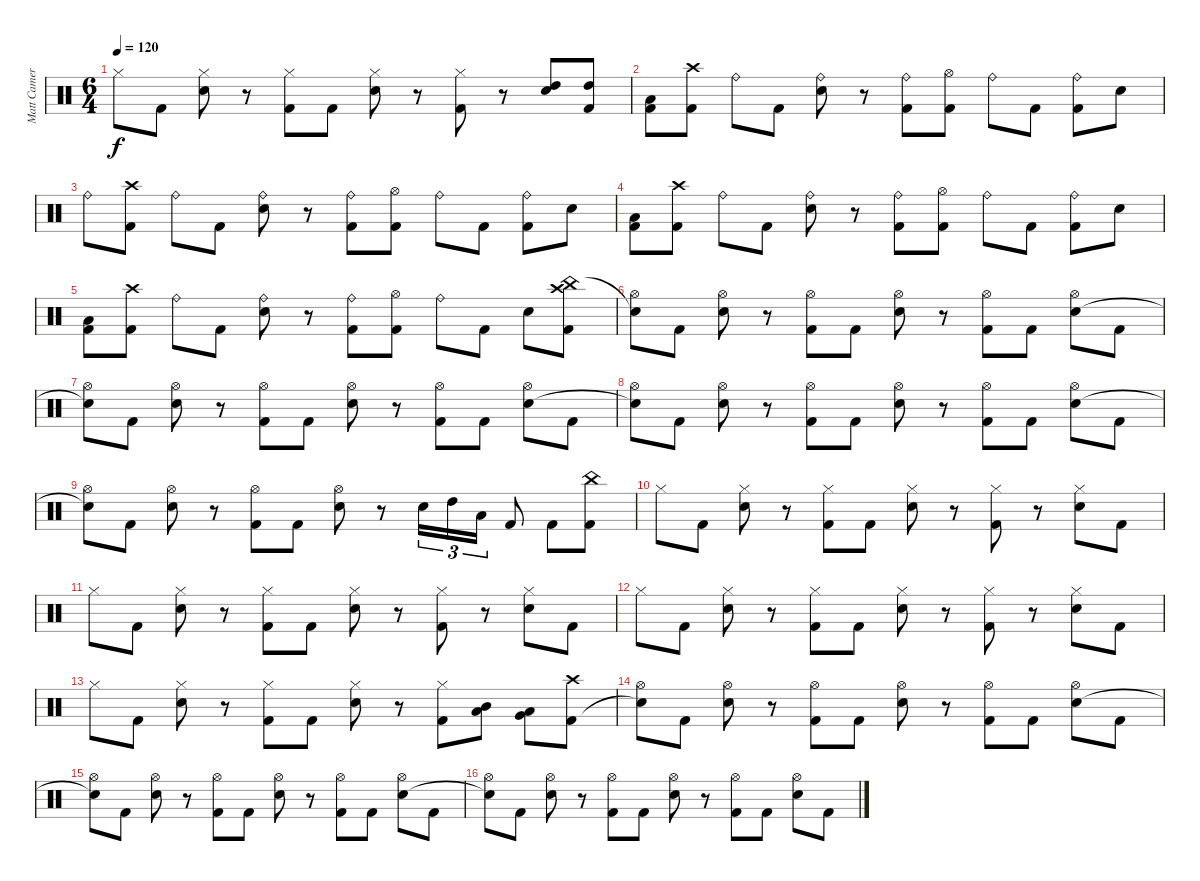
\track ("Matt Cameron (Drums)" "Matt Camer") {instrument percussion}
\staff {score}
\articulation defaults
\ts (6 4)
\tempo 120
\clef neutral
\ks c "Hi-Hat (closed)".8{dy f} "Kick (hit) 2".8
("Hi-Hat (closed)" "Electric Snare (hit)").8 r.8 ("Hi-Hat (closed)" "Kick (hit) 2").8 "Kick (hit) 2".8 ("Hi-Hat (closed)" "Electric Snare (hit)").8 r.8 ("Hi-Hat (closed)" "Kick (hit) 2").8 r.8 ("High Tom (hit)" "Electric Snare (hit)").8 ("High Tom (hit)" "Kick (hit) 2").8 |
("Low Tom (hit)" "Kick (hit) 2").8 ("Crash high (hit)" "Kick (hit) 2").8 "Ride (bell)".8 "Kick (hit) 2".8 ("Ride (bell)" "Electric Snare (hit)").8 r.8 ("Ride (bell)" "Kick (hit) 2").8 ("Hi-Hat (open)" "Kick (hit) 2").8 "Ride (bell)".8 "Kick (hit) 2".8 ("Ride (bell)" "Kick (hit) 2").8 "Electric Snare (hit)".8 |
"Ride (bell)".8 ("Crash high (hit)" "Kick (hit) 2").8 "Ride (bell)".8 "Kick (hit) 2".8 ("Ride (bell)" "Electric Snare (hit)").8 r.8 ("Ride (bell)" "Kick (hit) 2").8 ("Hi-Hat (open)" "Kick (hit) 2").8 "Ride (bell)".8 "Kick (hit) 2".8 ("Ride (bell)" "Kick (hit) 2").8 "Electric Snare (hit)".8 |
("Low Tom (hit)" "Kick (hit) 2").8 ("Crash high (hit)" "Kick (hit) 2").8 "Ride (bell)".8 "Kick (hit) 2".8 ("Ride (bell)" "Electric Snare (hit)").8 r.8 ("Ride (bell)" "Kick (hit) 2").8 ("Hi-Hat (open)" "Kick (hit) 2").8 "Ride (bell)".8 "Kick (hit) 2".8 ("Ride (bell)" "Kick (hit) 2").8 "Electric Snare (hit)".8 |
("Low Tom (hit)" "Kick (hit) 2").8 ("Crash high (hit)" "Kick (hit) 2").8 "Ride (bell)".8 "Kick (hit) 2".8 ("Ride (bell)" "Electric Snare (hit)").8 r.8 ("Ride (bell)" "Kick (hit) 2").8 ("Hi-Hat (open)" "Kick (hit) 2").8 "Ride (bell)".8 "Kick (hit) 2".8 "Electric Snare (hit)".8 ("Crash high (hit)" "China (hit)" "Kick (hit) 2").8 |
("Hi-Hat (open)" "Snare (hit)"{t}).8 "Kick (hit) 2".8 ("Hi-Hat (open)" "Electric Snare (hit)").8 r.8 ("Hi-Hat (open)" "Kick (hit) 2").8 "Kick (hit) 2".8 ("Hi-Hat (open)" "Electric Snare (hit)").8 r.8 ("Hi-Hat (open)" "Kick (hit) 2").8 "Kick (hit) 2".8 ("Hi-Hat (open)" "Electric Snare (hit)").8 "Kick (hit) 2".8 |
("Hi-Hat (open)" "Snare (hit)"{t}).8 "Kick (hit) 2".8 ("Hi-Hat (open)" "Electric Snare (hit)").8 r.8 ("Hi-Hat (open)" "Kick (hit) 2").8 "Kick (hit) 2".8 ("Hi-Hat (open)" "Electric Snare (hit)").8 r.8 ("Hi-Hat (open)" "Kick (hit) 2").8 "Kick (hit) 2".8 ("Hi-Hat (open)" "Electric Snare (hit)").8 "Kick (hit) 2".8 |
("Hi-Hat (open)" "Snare (hit)"{t}).8 "Kick (hit) 2".8 ("Hi-Hat (open)" "Electric Snare (hit)").8 r.8 ("Hi-Hat (open)" "Kick (hit) 2").8 "Kick (hit) 2".8 ("Hi-Hat (open)" "Electric Snare (hit)").8 r.8 ("Hi-Hat (open)" "Kick (hit) 2").8 "Kick (hit) 2".8 ("Hi-Hat (open)" "Electric Snare (hit)").8 "Kick (hit) 2".8 |
("Hi-Hat (open)" "Snare (hit)"{t}).8 "Kick (hit) 2".8 ("Hi-Hat (open)" "Electric Snare (hit)").8 r.8 ("Hi-Hat (open)" "Kick (hit) 2").8 "Kick (hit) 2".8 ("Hi-Hat (open)" "Electric Snare (hit)").8 r.8 "Electric Snare (hit)".16{tu (3 2)} "High Tom (hit)".16{tu (3 2)} "Low Tom (hit)".16{tu (3 2)} "Kick (hit) 2".8 "Kick (hit) 2".8 ("China (hit)" "Kick (hit) 2").8 |
"Hi-Hat (closed)".8 "Kick (hit) 2".8 ("Hi-Hat (closed)" "Electric Snare (hit)").8 r.8 ("Hi-Hat (closed)" "Kick (hit) 2").8 "Kick (hit) 2".8 ("Hi-Hat (closed)" "Electric Snare (hit)").8 r.8 ("Hi-Hat (closed)" "Kick (hit) 2").8 r.8 ("Hi-Hat (closed)" "Electric Snare (hit)").8 "Kick (hit) 2".8 |
"Hi-Hat (closed)".8 "Kick (hit) 2".8 ("Hi-Hat (closed)" "Electric Snare (hit)").8 r.8 ("Hi-Hat (closed)" "Kick (hit) 2").8 "Kick (hit) 2".8 ("Hi-Hat (closed)" "Electric Snare (hit)").8 r.8 ("Hi-Hat (closed)" "Kick (hit) 2").8 r.8 ("Hi-Hat (closed)" "Electric Snare (hit)").8 "Kick (hit) 2".8 |
"Hi-Hat (closed)".8 "Kick (hit) 2".8 ("Hi-Hat (closed)" "Electric Snare (hit)").8 r.8 ("Hi-Hat (closed)" "Kick (hit) 2").8 "Kick (hit) 2".8 ("Hi-Hat (closed)" "Electric Snare (hit)").8 r.8 ("Hi-Hat (closed)" "Kick (hit) 2").8 r.8 ("Hi-Hat (closed)" "Electric Snare (hit)").8 "Kick (hit) 2".8 |
"Hi-Hat (closed)".8 "Kick (hit) 2".8 ("Hi-Hat (closed)" "Electric Snare (hit)").8 r.8 ("Hi-Hat (closed)" "Kick (hit) 2").8 "Kick (hit) 2".8 ("Hi-Hat (closed)" "Electric Snare (hit)").8 r.8 ("Hi-Hat (closed)" "Kick (hit) 2").8 ("Low Tom (hit)" "Mid Tom (hit)").8 ("Very Low Tom (hit)" "Low Floor Tom (hit)").8 ("Crash high (hit)" "Kick (hit) 2").8 |
("Hi-Hat (open)" "Snare (hit)"{t}).8 "Kick (hit) 2".8 ("Hi-Hat (open)" "Electric Snare (hit)").8 r.8 ("Hi-Hat (open)" "Kick (hit) 2").8 "Kick (hit) 2".8 ("Hi-Hat (open)" "Electric Snare (hit)").8 r.8 ("Hi-Hat (open)" "Kick (hit) 2").8 "Kick (hit) 2".8 ("Hi-Hat (open)" "Electric Snare (hit)").8 "Kick (hit) 2".8 |
("Hi-Hat (open)" "Snare (hit)"{t}).8 "Kick (hit) 2".8 ("Hi-Hat (open)" "Electric Snare (hit)").8 r.8 ("Hi-Hat (open)" "Kick (hit) 2").8 "Kick (hit) 2".8 ("Hi-Hat (open)" "Electric Snare (hit)").8 r.8 ("Hi-Hat (open)" "Kick (hit) 2").8 "Kick (hit) 2".8 ("Hi-Hat (open)" "Electric Snare (hit)").8 "Kick (hit) 2".8 |
("Hi-Hat (open)" "Snare (hit)"{t}).8 "Kick (hit) 2".8 ("Hi-Hat (open)" "Electric Snare (hit)").8 r.8 ("Hi-Hat (open)" "Kick (hit) 2").8 "Kick (hit) 2".8 ("Hi-Hat (open)" "Electric Snare (hit)").8 r.8 ("Hi-Hat (open)" "Kick (hit) 2").8 "Kick (hit) 2".8 ("Hi-Hat (open)" "Electric Snare (hit)").8 "Kick (hit) 2".8
